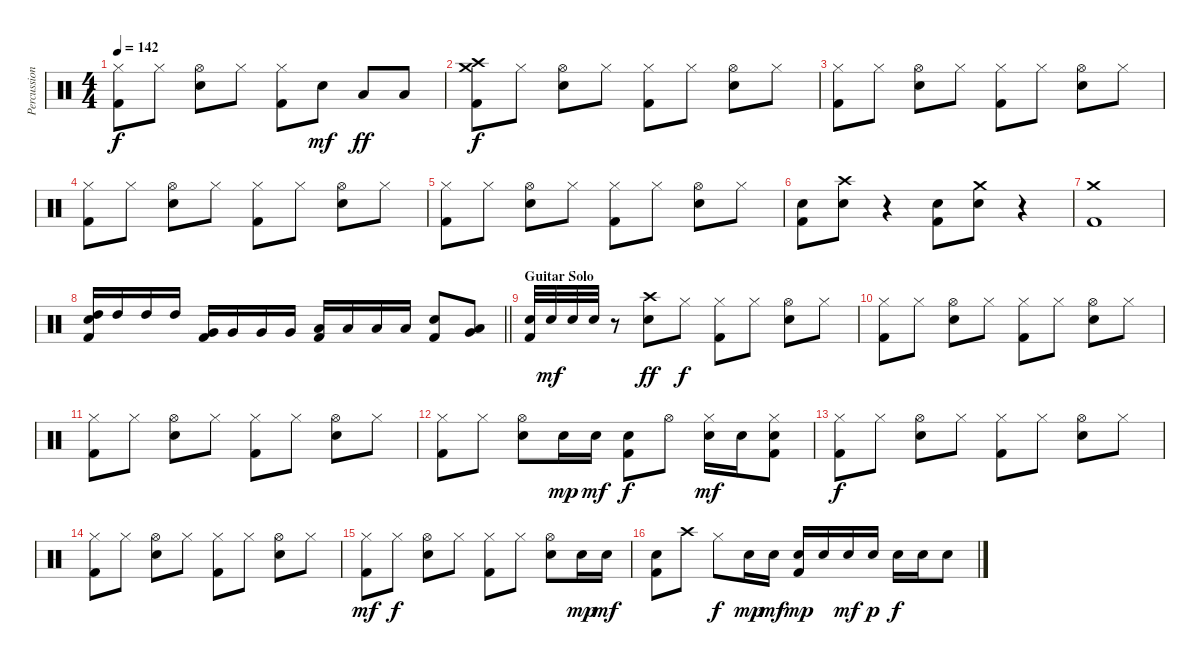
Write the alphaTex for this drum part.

\track ("Percussion" "Percussion") {instrument percussion}
\staff {score}
\articulation defaults
\ts (4 4)
\tempo 142
\clef neutral
\ks c
("Kick (hit) 2" "Hi-Hat (closed)").8{dy f} "Hi-Hat (closed)".8 ("Snare (hit) 2" "Hi-Hat (open)").8 "Hi-Hat (closed)".8 ("Kick (hit) 2" "Hi-Hat (closed)").8 "Snare (hit) 2".8{dy mf} "Low Floor Tom (hit)".8{dy ff} "Low Floor Tom (hit)".8 |
("Kick (hit) 2" "Crash high (hit)" "Crash medium (hit)").8{dy f} "Hi-Hat (closed)".8 ("Snare (hit) 2" "Hi-Hat (open)").8 "Hi-Hat (closed)".8 ("Kick (hit) 2" "Hi-Hat (closed)").8 "Hi-Hat (closed)".8 ("Snare (hit) 2" "Hi-Hat (open)").8 "Hi-Hat (closed)".8 |
("Kick (hit) 2" "Hi-Hat (closed)").8 "Hi-Hat (closed)".8 ("Snare (hit) 2" "Hi-Hat (open)").8 "Hi-Hat (closed)".8 ("Kick (hit) 2" "Hi-Hat (closed)").8 "Hi-Hat (closed)".8 ("Snare (hit) 2" "Hi-Hat (open)").8 "Hi-Hat (closed)".8 |
("Kick (hit) 2" "Hi-Hat (closed)").8 "Hi-Hat (closed)".8 ("Snare (hit) 2" "Hi-Hat (open)").8 "Hi-Hat (closed)".8 ("Kick (hit) 2" "Hi-Hat (closed)").8 "Hi-Hat (closed)".8 ("Snare (hit) 2" "Hi-Hat (open)").8 "Hi-Hat (closed)".8 |
("Kick (hit) 2" "Hi-Hat (closed)").8 "Hi-Hat (closed)".8 ("Snare (hit) 2" "Hi-Hat (open)").8 "Hi-Hat (closed)".8 ("Kick (hit) 2" "Hi-Hat (closed)").8 "Hi-Hat (closed)".8 ("Snare (hit) 2" "Hi-Hat (open)").8 "Hi-Hat (closed)".8 |
("Kick (hit) 2" "Snare (hit) 2").8 ("Snare (hit) 2" "Crash high (hit)").8 r.4 ("Kick (hit) 2" "Snare (hit) 2").8 ("Snare (hit) 2" "Crash medium (hit)").8 r.4 |
("Kick (hit) 2" "Crash medium (hit)").1 |
\barLineRight lightlight
("Kick (hit) 2" "Snare (hit) 2" "High Tom (hit)").16 "High Tom (hit)".16 "High Tom (hit)".16 "High Tom (hit)".16 ("Kick (hit) 2" "Very Low Tom (hit)").16 "Very Low Tom (hit)".16 "Very Low Tom (hit)".16 "Very Low Tom (hit)".16 ("Kick (hit) 2" "Low Tom (hit)").16 "Low Tom (hit)".16 "Low Tom (hit)".16 "Low Tom (hit)".16 ("Kick (hit) 2" "Snare (hit) 2").8 ("Very Low Tom (hit)" "Low Floor Tom (hit)").8 |
\section ("" "Guitar Solo")
("Kick (hit) 2" "Snare (hit) 2").32 "Snare (hit) 2".32{dy mf} "Snare (hit) 2".32 "Snare (hit) 2".32 r.8 ("Snare (hit) 2" "Crash high (hit)").8{dy ff} "Hi-Hat (closed)".8{dy f} ("Kick (hit) 2" "Hi-Hat (closed)").8 "Hi-Hat (closed)".8 ("Snare (hit) 2" "Hi-Hat (open)").8 "Hi-Hat (closed)".8 |
("Kick (hit) 2" "Hi-Hat (closed)").8 "Hi-Hat (closed)".8 ("Snare (hit) 2" "Hi-Hat (open)").8 "Hi-Hat (closed)".8 ("Kick (hit) 2" "Hi-Hat (closed)").8 "Hi-Hat (closed)".8 ("Snare (hit) 2" "Hi-Hat (open)").8 "Hi-Hat (closed)".8 |
("Kick (hit) 2" "Hi-Hat (closed)").8 "Hi-Hat (closed)".8 ("Snare (hit) 2" "Hi-Hat (open)").8 "Hi-Hat (closed)".8 ("Kick (hit) 2" "Hi-Hat (closed)").8 "Hi-Hat (closed)".8 ("Snare (hit) 2" "Hi-Hat (open)").8 "Hi-Hat (closed)".8 |
("Kick (hit) 2" "Hi-Hat (closed)").8 "Hi-Hat (closed)".8 ("Snare (hit) 2" "Hi-Hat (open)").8 "Snare (hit) 2".16{dy mp} "Snare (hit) 2".16{dy mf} ("Kick (hit) 2" "Snare (hit) 2").8{dy f} "Hi-Hat (open)".8 ("Snare (hit) 2" "Hi-Hat (closed)").16{dy mf} "Snare (hit) 2".16 ("Kick (hit) 2" "Snare (hit) 2" "Hi-Hat (closed)").8 |
("Kick (hit) 2" "Hi-Hat (closed)").8{dy f} "Hi-Hat (closed)".8 ("Snare (hit) 2" "Hi-Hat (open)").8 "Hi-Hat (closed)".8 ("Kick (hit) 2" "Hi-Hat (closed)").8 "Hi-Hat (closed)".8 ("Snare (hit) 2" "Hi-Hat (open)").8 "Hi-Hat (closed)".8 |
("Kick (hit) 2" "Hi-Hat (closed)").8 "Hi-Hat (closed)".8 ("Snare (hit) 2" "Hi-Hat (open)").8 "Hi-Hat (closed)".8 ("Kick (hit) 2" "Hi-Hat (closed)").8 "Hi-Hat (closed)".8 ("Snare (hit) 2" "Hi-Hat (open)").8 "Hi-Hat (closed)".8 |
("Kick (hit) 2" "Hi-Hat (closed)").8{dy mf} "Hi-Hat (closed)".8{dy f} ("Snare (hit) 2" "Hi-Hat (open)").8 "Hi-Hat (closed)".8 ("Kick (hit) 2" "Hi-Hat (closed)").8 "Hi-Hat (closed)".8 ("Snare (hit) 2" "Hi-Hat (open)").8 "Snare (hit) 2".16{dy mp} "Snare (hit) 2".16{dy mf} |
("Kick (hit) 2" "Snare (hit) 2").8 "Crash high (hit)".8 "Hi-Hat (closed)".8{dy f} "Snare (hit) 2".16{dy mp} "Snare (hit) 2".16{dy mf} ("Kick (hit) 2" "Snare (hit) 2").16{dy mp} "Snare (hit) 2".16 "Snare (hit) 2".16{dy mf} "Snare (hit) 2".16{dy p} "Snare (hit) 2".16{dy f} "Snare (hit) 2".16 "Snare (hit) 2".8
